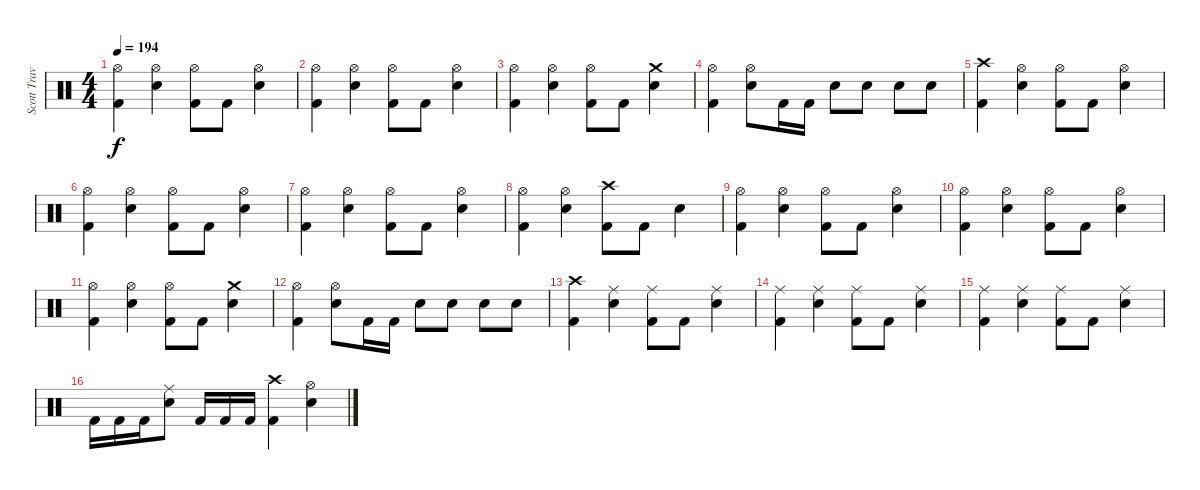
\track ("Scott Travis" "Scott Trav") {instrument percussion}
\staff {score}
\articulation defaults
\ts (4 4)
\tempo 194
\clef neutral
\ks c
("Kick (hit) 2" "Hi-Hat (open)").4{dy f} ("Hi-Hat (open)" "Snare (hit) 2").4 ("Hi-Hat (open)" "Kick (hit) 2").8 "Kick (hit) 2".8 ("Snare (hit) 2" "Hi-Hat (open)").4 |
("Kick (hit) 2" "Hi-Hat (open)").4 ("Hi-Hat (open)" "Snare (hit) 2").4 ("Hi-Hat (open)" "Kick (hit) 2").8 "Kick (hit) 2".8 ("Snare (hit) 2" "Hi-Hat (open)").4 |
("Kick (hit) 2" "Hi-Hat (open)").4 ("Hi-Hat (open)" "Snare (hit) 2").4 ("Hi-Hat (open)" "Kick (hit) 2").8 "Kick (hit) 2".8 ("Snare (hit) 2" "Crash medium (hit)").4 |
("Kick (hit) 2" "Hi-Hat (open)").4 ("Hi-Hat (open)" "Snare (hit) 2").8 "Kick (hit) 2".16 "Kick (hit) 2".16 "Snare (hit) 2".8 "Snare (hit) 2".8 "Snare (hit) 2".8 "Snare (hit) 2".8 |
("Kick (hit) 2" "Crash high (hit)").4 ("Hi-Hat (open)" "Snare (hit) 2").4 ("Hi-Hat (open)" "Kick (hit) 2").8 "Kick (hit) 2".8 ("Snare (hit) 2" "Hi-Hat (open)").4 |
("Kick (hit) 2" "Hi-Hat (open)").4 ("Hi-Hat (open)" "Snare (hit) 2").4 ("Hi-Hat (open)" "Kick (hit) 2").8 "Kick (hit) 2".8 ("Snare (hit) 2" "Hi-Hat (open)").4 |
("Kick (hit) 2" "Hi-Hat (open)").4 ("Hi-Hat (open)" "Snare (hit) 2").4 ("Hi-Hat (open)" "Kick (hit) 2").8 "Kick (hit) 2".8 ("Snare (hit) 2" "Hi-Hat (open)").4 |
("Kick (hit) 2" "Hi-Hat (open)").4 ("Hi-Hat (open)" "Snare (hit) 2").4 ("Kick (hit) 2" "Crash high (hit)").8 "Kick (hit) 2".8 "Snare (hit) 2".4 |
("Kick (hit) 2" "Hi-Hat (open)").4 ("Hi-Hat (open)" "Snare (hit) 2").4 ("Hi-Hat (open)" "Kick (hit) 2").8 "Kick (hit) 2".8 ("Snare (hit) 2" "Hi-Hat (open)").4 |
("Kick (hit) 2" "Hi-Hat (open)").4 ("Hi-Hat (open)" "Snare (hit) 2").4 ("Hi-Hat (open)" "Kick (hit) 2").8 "Kick (hit) 2".8 ("Snare (hit) 2" "Hi-Hat (open)").4 |
("Kick (hit) 2" "Hi-Hat (open)").4 ("Hi-Hat (open)" "Snare (hit) 2").4 ("Hi-Hat (open)" "Kick (hit) 2").8 "Kick (hit) 2".8 ("Snare (hit) 2" "Crash medium (hit)").4 |
("Kick (hit) 2" "Hi-Hat (open)").4 ("Hi-Hat (open)" "Snare (hit) 2").8 "Kick (hit) 2".16 "Kick (hit) 2".16 "Snare (hit) 2".8 "Snare (hit) 2".8 "Snare (hit) 2".8 "Snare (hit) 2".8 |
("Kick (hit) 2" "Crash high (hit)").4 ("Ride (middle)" "Snare (hit) 2").4 ("Ride (middle)" "Kick (hit) 2").8 "Kick (hit) 2".8 ("Snare (hit) 2" "Ride (middle)").4 |
("Kick (hit) 2" "Ride (middle)").4 ("Ride (middle)" "Snare (hit) 2").4 ("Ride (middle)" "Kick (hit) 2").8 "Kick (hit) 2".8 ("Snare (hit) 2" "Ride (middle)").4 |
("Kick (hit) 2" "Ride (middle)").4 ("Ride (middle)" "Snare (hit) 2").4 ("Ride (middle)" "Kick (hit) 2").8 "Kick (hit) 2".8 ("Snare (hit) 2" "Ride (middle)").4 |
"Kick (hit) 2".16 "Kick (hit) 2".16 "Kick (hit) 2".16 ("Ride (middle)" "Snare (hit) 2").8 "Kick (hit) 2".16 "Kick (hit) 2".16 "Kick (hit) 2".16 ("Crash high (hit)" "Kick (hit) 2").4 ("Hi-Hat (open)" "Snare (hit) 2").4
